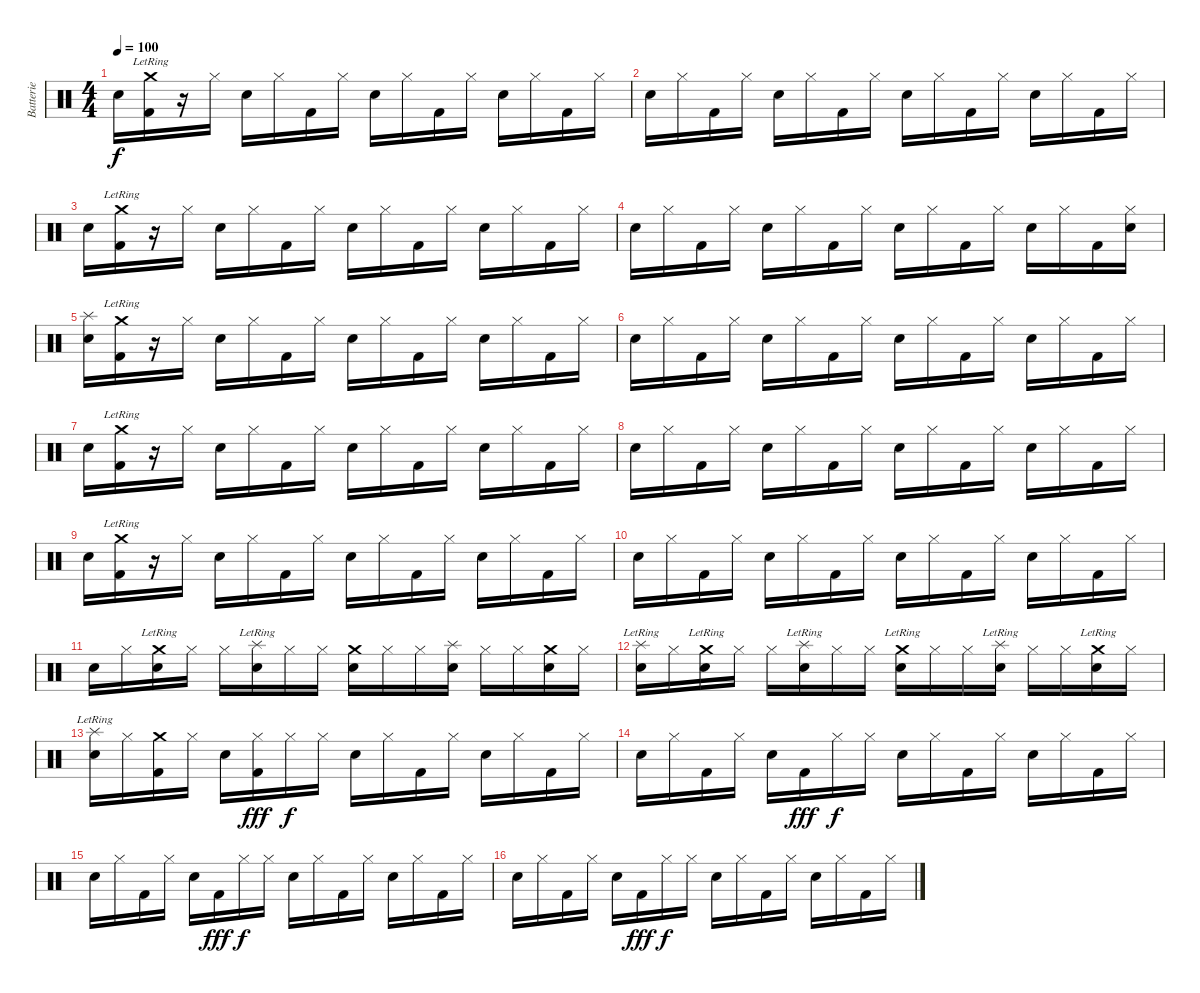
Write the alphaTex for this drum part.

\track ("Batterie" "Batterie") {instrument percussion}
\staff {score}
\articulation defaults
\ts (4 4)
\tempo 100
\clef neutral
\ks c "Metronome (bell)".16{dy f}
("Crash medium (hit)"{lr} "Kick (hit) 2").16 r.16 "Hi-Hat (closed)".16 "Metronome (bell)".16 "Hi-Hat (closed)".16 "Kick (hit) 2".16 "Hi-Hat (closed)".16 "Metronome (bell)".16 "Hi-Hat (closed)".16 "Kick (hit) 2".16 "Hi-Hat (closed)".16 "Metronome (bell)".16 "Hi-Hat (closed)".16 "Kick (hit) 2".16 "Hi-Hat (closed)".16 |
"Metronome (bell)".16 "Hi-Hat (closed)".16 "Kick (hit) 2".16 "Hi-Hat (closed)".16 "Metronome (bell)".16 "Hi-Hat (closed)".16 "Kick (hit) 2".16 "Hi-Hat (closed)".16 "Metronome (bell)".16 "Hi-Hat (closed)".16 "Kick (hit) 2".16 "Hi-Hat (closed)".16 "Metronome (bell)".16 "Hi-Hat (closed)".16 "Kick (hit) 2".16 "Hi-Hat (closed)".16 |
"Metronome (bell)".16 ("Crash medium (hit)"{lr} "Kick (hit) 2").16 r.16 "Hi-Hat (closed)".16 "Metronome (bell)".16 "Hi-Hat (closed)".16 "Kick (hit) 2".16 "Hi-Hat (closed)".16 "Metronome (bell)".16 "Hi-Hat (closed)".16 "Kick (hit) 2".16 "Hi-Hat (closed)".16 "Metronome (bell)".16 "Hi-Hat (closed)".16 "Kick (hit) 2".16 "Hi-Hat (closed)".16 |
"Metronome (bell)".16 "Hi-Hat (closed)".16 "Kick (hit) 2".16 "Hi-Hat (closed)".16 "Metronome (bell)".16 "Hi-Hat (closed)".16 "Kick (hit) 2".16 "Hi-Hat (closed)".16 "Metronome (bell)".16 "Hi-Hat (closed)".16 "Kick (hit) 2".16 "Hi-Hat (closed)".16 "Metronome (bell)".16 "Hi-Hat (closed)".16 "Kick (hit) 2".16 ("Metronome (bell)" "Hi-Hat (closed)").16 |
("Splash (hit)" "Metronome (bell)").16 ("Crash medium (hit)"{lr} "Kick (hit) 2").16 r.16 "Hi-Hat (closed)".16 "Metronome (bell)".16 "Hi-Hat (closed)".16 "Kick (hit) 2".16 "Hi-Hat (closed)".16 "Metronome (bell)".16 "Hi-Hat (closed)".16 "Kick (hit) 2".16 "Hi-Hat (closed)".16 "Metronome (bell)".16 "Hi-Hat (closed)".16 "Kick (hit) 2".16 "Hi-Hat (closed)".16 |
"Metronome (bell)".16 "Hi-Hat (closed)".16 "Kick (hit) 2".16 "Hi-Hat (closed)".16 "Metronome (bell)".16 "Hi-Hat (closed)".16 "Kick (hit) 2".16 "Hi-Hat (closed)".16 "Metronome (bell)".16 "Hi-Hat (closed)".16 "Kick (hit) 2".16 "Hi-Hat (closed)".16 "Metronome (bell)".16 "Hi-Hat (closed)".16 "Kick (hit) 2".16 "Hi-Hat (closed)".16 |
"Metronome (bell)".16 ("Crash medium (hit)"{lr} "Kick (hit) 2").16 r.16 "Hi-Hat (closed)".16 "Metronome (bell)".16 "Hi-Hat (closed)".16 "Kick (hit) 2".16 "Hi-Hat (closed)".16 "Metronome (bell)".16 "Hi-Hat (closed)".16 "Kick (hit) 2".16 "Hi-Hat (closed)".16 "Metronome (bell)".16 "Hi-Hat (closed)".16 "Kick (hit) 2".16 "Hi-Hat (closed)".16 |
"Metronome (bell)".16 "Hi-Hat (closed)".16 "Kick (hit) 2".16 "Hi-Hat (closed)".16 "Metronome (bell)".16 "Hi-Hat (closed)".16 "Kick (hit) 2".16 "Hi-Hat (closed)".16 "Metronome (bell)".16 "Hi-Hat (closed)".16 "Kick (hit) 2".16 "Hi-Hat (closed)".16 "Metronome (bell)".16 "Hi-Hat (closed)".16 "Kick (hit) 2".16 "Hi-Hat (closed)".16 |
"Metronome (bell)".16 ("Crash medium (hit)"{lr} "Kick (hit) 2").16 r.16 "Hi-Hat (closed)".16 "Metronome (bell)".16 "Hi-Hat (closed)".16 "Kick (hit) 2".16 "Hi-Hat (closed)".16 "Metronome (bell)".16 "Hi-Hat (closed)".16 "Kick (hit) 2".16 "Hi-Hat (closed)".16 "Metronome (bell)".16 "Hi-Hat (closed)".16 "Kick (hit) 2".16 "Hi-Hat (closed)".16 |
"Metronome (bell)".16 "Hi-Hat (closed)".16 "Kick (hit) 2".16 "Hi-Hat (closed)".16 "Metronome (bell)".16 "Hi-Hat (closed)".16 "Kick (hit) 2".16 "Hi-Hat (closed)".16 "Metronome (bell)".16 "Hi-Hat (closed)".16 "Kick (hit) 2".16 "Hi-Hat (closed)".16 "Metronome (bell)".16 "Hi-Hat (closed)".16 "Kick (hit) 2".16 "Hi-Hat (closed)".16 |
"Metronome (bell)".16 "Hi-Hat (closed)".16 ("Crash medium (hit)"{lr} "Metronome (bell)").16 "Hi-Hat (closed)".16 "Hi-Hat (closed)".16 ("Splash (hit)"{lr} "Metronome (bell)").16 "Hi-Hat (closed)".16 "Hi-Hat (closed)".16 ("Crash medium (hit)" "Metronome (bell)").16 "Hi-Hat (closed)".16 "Hi-Hat (closed)".16 ("Splash (hit)" "Metronome (bell)").16 "Hi-Hat (closed)".16 "Hi-Hat (closed)".16 ("Crash medium (hit)" "Metronome (bell)").16 "Hi-Hat (closed)".16 |
("Splash (hit)"{lr} "Metronome (bell)").16 "Hi-Hat (closed)".16 ("Crash medium (hit)"{lr} "Metronome (bell)").16 "Hi-Hat (closed)".16 "Hi-Hat (closed)".16 ("Splash (hit)"{lr} "Metronome (bell)").16 "Hi-Hat (closed)".16 "Hi-Hat (closed)".16 ("Crash medium (hit)"{lr} "Metronome (bell)").16 "Hi-Hat (closed)".16 "Hi-Hat (closed)".16 ("Splash (hit)"{lr} "Metronome (bell)").16 "Hi-Hat (closed)".16 "Hi-Hat (closed)".16 ("Crash medium (hit)"{lr} "Metronome (bell)").16 "Hi-Hat (closed)".16 |
("Splash (hit)"{lr} "Metronome (bell)").16 "Hi-Hat (closed)".16 ("Crash medium (hit)" "Kick (hit) 2").16 "Hi-Hat (closed)".16 "Metronome (bell)".16 ("Kick (hit) 2" "Hi-Hat (closed)").16{dy fff} "Hi-Hat (closed)".16{dy f} "Hi-Hat (closed)".16 "Metronome (bell)".16 "Hi-Hat (closed)".16 "Kick (hit) 2".16 "Hi-Hat (closed)".16 "Metronome (bell)".16 "Hi-Hat (closed)".16 "Kick (hit) 2".16 "Hi-Hat (closed)".16 |
"Metronome (bell)".16 "Hi-Hat (closed)".16 "Kick (hit) 2".16 "Hi-Hat (closed)".16 "Metronome (bell)".16 "Kick (hit) 2".16{dy fff} "Hi-Hat (closed)".16{dy f} "Hi-Hat (closed)".16 "Metronome (bell)".16 "Hi-Hat (closed)".16 "Kick (hit) 2".16 "Hi-Hat (closed)".16 "Metronome (bell)".16 "Hi-Hat (closed)".16 "Kick (hit) 2".16 "Hi-Hat (closed)".16 |
"Metronome (bell)".16 "Hi-Hat (closed)".16 "Kick (hit) 2".16 "Hi-Hat (closed)".16 "Metronome (bell)".16 "Kick (hit) 2".16{dy fff} "Hi-Hat (closed)".16{dy f} "Hi-Hat (closed)".16 "Metronome (bell)".16 "Hi-Hat (closed)".16 "Kick (hit) 2".16 "Hi-Hat (closed)".16 "Metronome (bell)".16 "Hi-Hat (closed)".16 "Kick (hit) 2".16 "Hi-Hat (closed)".16 |
"Metronome (bell)".16 "Hi-Hat (closed)".16 "Kick (hit) 2".16 "Hi-Hat (closed)".16 "Metronome (bell)".16 "Kick (hit) 2".16{dy fff} "Hi-Hat (closed)".16{dy f} "Hi-Hat (closed)".16 "Metronome (bell)".16 "Hi-Hat (closed)".16 "Kick (hit) 2".16 "Hi-Hat (closed)".16 "Metronome (bell)".16 "Hi-Hat (closed)".16 "Kick (hit) 2".16 "Hi-Hat (closed)".16
